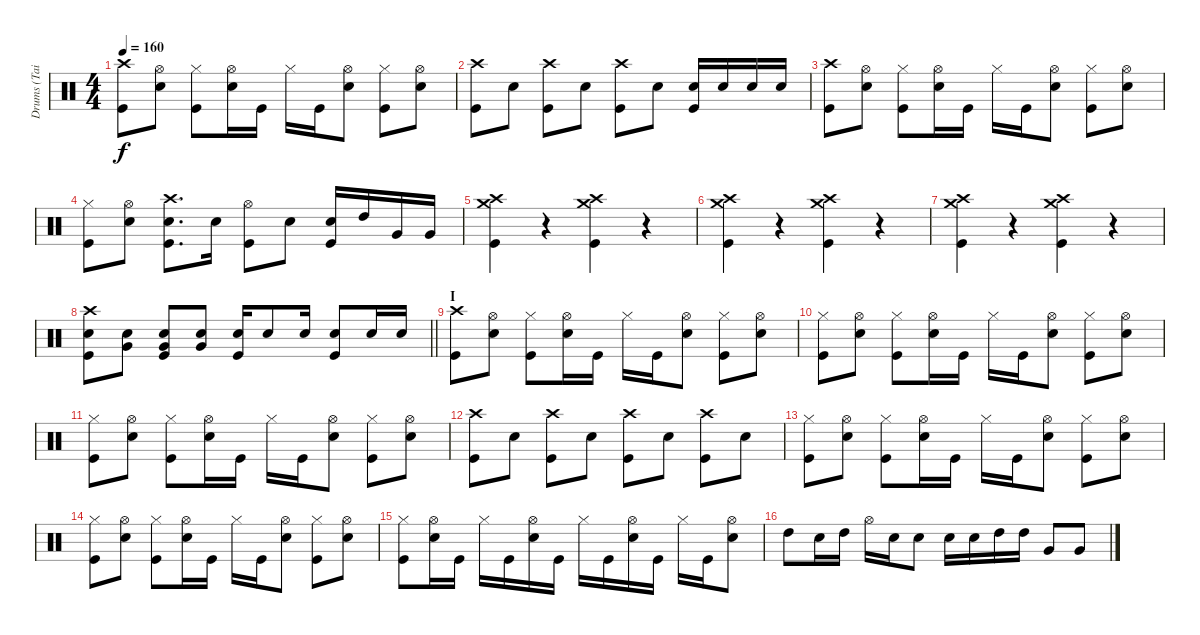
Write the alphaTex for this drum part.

\track ("Drums (Tainaka Ritsu)" "Drums (Tai") {instrument percussion}
\staff {score}
\articulation defaults
\ts (4 4)
\tempo 160
\clef neutral
\ks c
("Crash high (hit)" "Kick (hit)").8{dy f} ("Hi-Hat (open)" "Snare (hit) 2").8 ("Hi-Hat (closed)" "Kick (hit)").8 ("Hi-Hat (open)" "Snare (hit) 2").16 "Kick (hit)".16 "Hi-Hat (closed)".16 "Kick (hit)".16 ("Hi-Hat (open)" "Snare (hit) 2").8 ("Hi-Hat (closed)" "Kick (hit)").8 ("Hi-Hat (open)" "Snare (hit) 2").8 |
("Crash high (hit)" "Kick (hit)").8 "Snare (hit) 2".8 ("Crash high (hit)" "Kick (hit)").8 "Snare (hit) 2".8 ("Crash high (hit)" "Kick (hit)").8 "Snare (hit) 2".8 ("Snare (hit) 2" "Kick (hit)").16 "Snare (hit) 2".16 "Snare (hit) 2".16 "Snare (hit) 2".16 |
("Crash high (hit)" "Kick (hit)").8 ("Hi-Hat (open)" "Snare (hit) 2").8 ("Hi-Hat (closed)" "Kick (hit)").8 ("Hi-Hat (open)" "Snare (hit) 2").16 "Kick (hit)".16 "Hi-Hat (closed)".16 "Kick (hit)".16 ("Hi-Hat (open)" "Snare (hit) 2").8 ("Hi-Hat (closed)" "Kick (hit)").8 ("Hi-Hat (open)" "Snare (hit) 2").8 |
("Hi-Hat (closed)" "Kick (hit)").8 ("Hi-Hat (open)" "Snare (hit) 2").8 ("Crash high (hit)" "Snare (hit) 2" "Kick (hit)").8{d} "Snare (hit) 2".16 ("Hi-Hat (open)" "Kick (hit)").8 "Snare (hit) 2".8 ("Snare (hit) 2" "Kick (hit)").16 "High Tom (hit)".16 "Very Low Tom (hit)".16 "Very Low Tom (hit)".16 |
("Crash high (hit)" "Crash medium (hit)" "Kick (hit)").4 r.4 ("Crash high (hit)" "Crash medium (hit)" "Kick (hit)").4 r.4 |
("Crash high (hit)" "Crash medium (hit)" "Kick (hit)").4 r.4 ("Crash high (hit)" "Crash medium (hit)" "Kick (hit)").4 r.4 |
("Crash high (hit)" "Crash medium (hit)" "Kick (hit)").4 r.4 ("Crash high (hit)" "Crash medium (hit)" "Kick (hit)").4 r.4 |
\barLineRight lightlight
("Crash high (hit)" "Snare (hit) 2" "Kick (hit)").8 ("Snare (hit) 2" "Very Low Tom (hit)").8 ("Snare (hit) 2" "Very Low Tom (hit)" "Kick (hit)").8 ("Snare (hit) 2" "Very Low Tom (hit)").8 ("Snare (hit) 2" "Kick (hit)").16 "Snare (hit) 2".8 "Snare (hit) 2".16 ("Snare (hit) 2" "Kick (hit)").8 "Snare (hit) 2".16 "Snare (hit) 2".16 |
\section ("" "I")
("Crash high (hit)" "Kick (hit)").8 ("Hi-Hat (open)" "Snare (hit) 2").8 ("Hi-Hat (closed)" "Kick (hit)").8 ("Hi-Hat (open)" "Snare (hit) 2").16 "Kick (hit)".16 "Hi-Hat (closed)".16 "Kick (hit)".16 ("Hi-Hat (open)" "Snare (hit) 2").8 ("Hi-Hat (closed)" "Kick (hit)").8 ("Hi-Hat (open)" "Snare (hit) 2").8 |
("Hi-Hat (closed)" "Kick (hit)").8 ("Hi-Hat (open)" "Snare (hit) 2").8 ("Hi-Hat (closed)" "Kick (hit)").8 ("Hi-Hat (open)" "Snare (hit) 2").16 "Kick (hit)".16 "Hi-Hat (closed)".16 "Kick (hit)".16 ("Hi-Hat (open)" "Snare (hit) 2").8 ("Hi-Hat (closed)" "Kick (hit)").8 ("Hi-Hat (open)" "Snare (hit) 2").8 |
("Hi-Hat (closed)" "Kick (hit)").8 ("Hi-Hat (open)" "Snare (hit) 2").8 ("Hi-Hat (closed)" "Kick (hit)").8 ("Hi-Hat (open)" "Snare (hit) 2").16 "Kick (hit)".16 "Hi-Hat (closed)".16 "Kick (hit)".16 ("Hi-Hat (open)" "Snare (hit) 2").8 ("Hi-Hat (closed)" "Kick (hit)").8 ("Hi-Hat (open)" "Snare (hit) 2").8 |
("Crash high (hit)" "Kick (hit)").8 "Snare (hit) 2".8 ("Crash high (hit)" "Kick (hit)").8 "Snare (hit) 2".8 ("Crash high (hit)" "Kick (hit)").8 "Snare (hit) 2".8 ("Crash high (hit)" "Kick (hit)").8 "Snare (hit) 2".8 |
("Hi-Hat (closed)" "Kick (hit)").8 ("Hi-Hat (open)" "Snare (hit) 2").8 ("Hi-Hat (closed)" "Kick (hit)").8 ("Hi-Hat (open)" "Snare (hit) 2").16 "Kick (hit)".16 "Hi-Hat (closed)".16 "Kick (hit)".16 ("Hi-Hat (open)" "Snare (hit) 2").8 ("Hi-Hat (closed)" "Kick (hit)").8 ("Hi-Hat (open)" "Snare (hit) 2").8 |
("Hi-Hat (closed)" "Kick (hit)").8 ("Hi-Hat (open)" "Snare (hit) 2").8 ("Hi-Hat (closed)" "Kick (hit)").8 ("Hi-Hat (open)" "Snare (hit) 2").16 "Kick (hit)".16 "Hi-Hat (closed)".16 "Kick (hit)".16 ("Hi-Hat (open)" "Snare (hit) 2").8 ("Hi-Hat (closed)" "Kick (hit)").8 ("Hi-Hat (open)" "Snare (hit) 2").8 |
("Hi-Hat (closed)" "Kick (hit)").8 ("Hi-Hat (open)" "Snare (hit) 2").16 "Kick (hit)".16 "Hi-Hat (closed)".16 "Kick (hit)".16 ("Hi-Hat (open)" "Snare (hit) 2").16 "Kick (hit)".16 "Hi-Hat (closed)".16 "Kick (hit)".16 ("Hi-Hat (open)" "Snare (hit) 2").16 "Kick (hit)".16 "Hi-Hat (closed)".16 "Kick (hit)".16 ("Hi-Hat (open)" "Snare (hit) 2").8 |
"High Tom (hit)".8 "Snare (hit) 2".16 "High Tom (hit)".16 "Hi-Hat (open)".16 "Snare (hit) 2".16 "Snare (hit) 2".8 "Snare (hit) 2".16 "Snare (hit) 2".16 "High Tom (hit)".16 "High Tom (hit)".16 "Very Low Tom (hit)".8 "Very Low Tom (hit)".8
